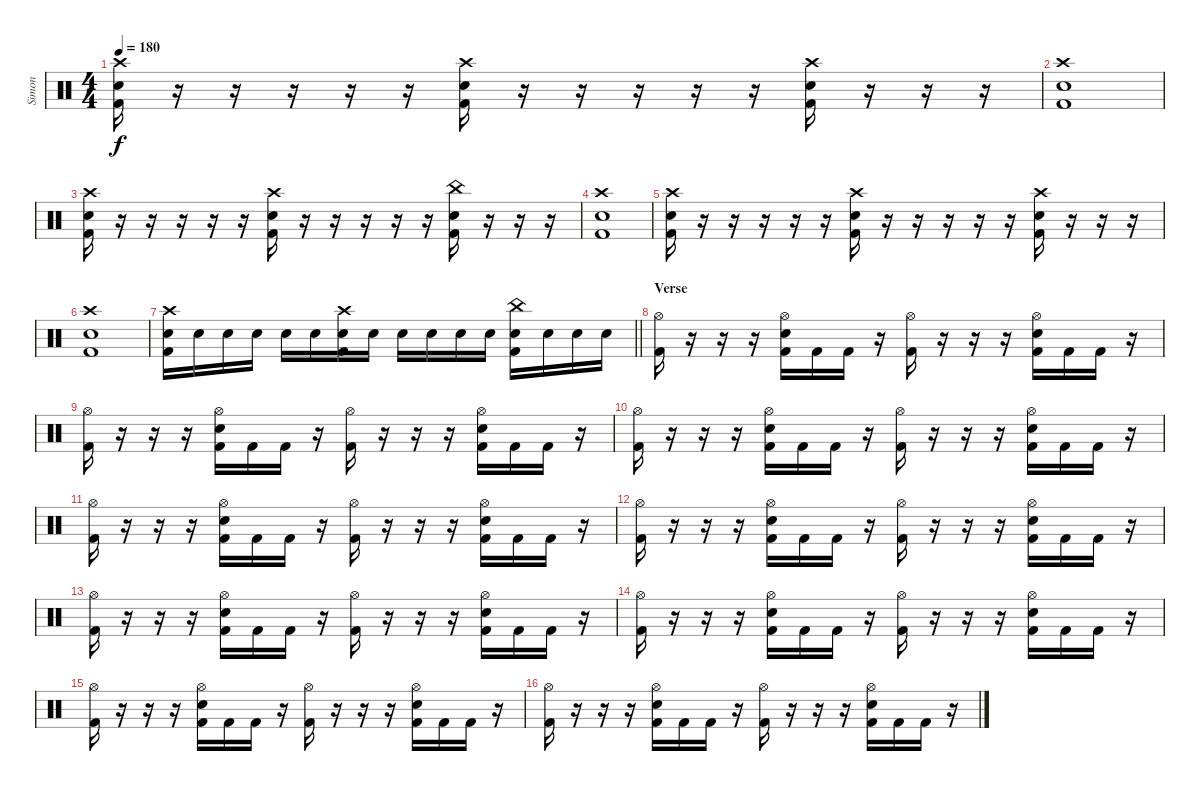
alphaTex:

\track ("Simon" "Simon") {instrument percussion}
\staff {score}
\articulation defaults
\ts (4 4)
\tempo 180
\clef neutral
\ks c
("Crash high (hit)" "Kick (hit) 2" "Electric Snare (hit)").16{dy f} r.16 r.16 r.16 r.16 r.16 ("Crash high (hit)" "Kick (hit) 2" "Electric Snare (hit)").16 r.16 r.16 r.16 r.16 r.16 ("Crash high (hit)" "Kick (hit) 2" "Electric Snare (hit)").16 r.16 r.16 r.16 |
("Crash high (hit)" "Kick (hit) 2" "Electric Snare (hit)").1 |
("Crash high (hit)" "Kick (hit) 2" "Electric Snare (hit)").16 r.16 r.16 r.16 r.16 r.16 ("Crash high (hit)" "Kick (hit) 2" "Electric Snare (hit)").16 r.16 r.16 r.16 r.16 r.16 ("China (hit)" "Kick (hit) 2" "Electric Snare (hit)").16 r.16 r.16 r.16 |
("Crash high (hit)" "Kick (hit) 2" "Electric Snare (hit)").1 |
("Crash high (hit)" "Kick (hit) 2" "Electric Snare (hit)").16 r.16 r.16 r.16 r.16 r.16 ("Crash high (hit)" "Kick (hit) 2" "Electric Snare (hit)").16 r.16 r.16 r.16 r.16 r.16 ("Crash high (hit)" "Kick (hit) 2" "Electric Snare (hit)").16 r.16 r.16 r.16 |
("Crash high (hit)" "Kick (hit) 2" "Electric Snare (hit)").1 |
\barLineRight lightlight
("Crash high (hit)" "Kick (hit) 2" "Electric Snare (hit)").16 "Electric Snare (hit)".16 "Electric Snare (hit)".16 "Electric Snare (hit)".16 "Electric Snare (hit)".16 "Electric Snare (hit)".16 ("Crash high (hit)" "Kick (hit) 2" "Electric Snare (hit)").16 "Electric Snare (hit)".16 "Electric Snare (hit)".16 "Electric Snare (hit)".16 "Electric Snare (hit)".16 "Electric Snare (hit)".16 ("China (hit)" "Kick (hit) 2" "Electric Snare (hit)").16 "Electric Snare (hit)".16 "Electric Snare (hit)".16 "Electric Snare (hit)".16 |
\section ("" "Verse")
("Hi-Hat (open)" "Kick (hit) 2").16 r.16 r.16 r.16 ("Hi-Hat (open)" "Electric Snare (hit)" "Kick (hit) 2").16 "Kick (hit) 2".16 "Kick (hit) 2".16 r.16 ("Hi-Hat (open)" "Kick (hit) 2").16 r.16 r.16 r.16 ("Hi-Hat (open)" "Electric Snare (hit)" "Kick (hit) 2").16 "Kick (hit) 2".16 "Kick (hit) 2".16 r.16 |
("Hi-Hat (open)" "Kick (hit) 2").16 r.16 r.16 r.16 ("Hi-Hat (open)" "Electric Snare (hit)" "Kick (hit) 2").16 "Kick (hit) 2".16 "Kick (hit) 2".16 r.16 ("Hi-Hat (open)" "Kick (hit) 2").16 r.16 r.16 r.16 ("Hi-Hat (open)" "Electric Snare (hit)" "Kick (hit) 2").16 "Kick (hit) 2".16 "Kick (hit) 2".16 r.16 |
("Hi-Hat (open)" "Kick (hit) 2").16 r.16 r.16 r.16 ("Hi-Hat (open)" "Electric Snare (hit)" "Kick (hit) 2").16 "Kick (hit) 2".16 "Kick (hit) 2".16 r.16 ("Hi-Hat (open)" "Kick (hit) 2").16 r.16 r.16 r.16 ("Hi-Hat (open)" "Electric Snare (hit)" "Kick (hit) 2").16 "Kick (hit) 2".16 "Kick (hit) 2".16 r.16 |
("Hi-Hat (open)" "Kick (hit) 2").16 r.16 r.16 r.16 ("Hi-Hat (open)" "Electric Snare (hit)" "Kick (hit) 2").16 "Kick (hit) 2".16 "Kick (hit) 2".16 r.16 ("Hi-Hat (open)" "Kick (hit) 2").16 r.16 r.16 r.16 ("Hi-Hat (open)" "Electric Snare (hit)" "Kick (hit) 2").16 "Kick (hit) 2".16 "Kick (hit) 2".16 r.16 |
("Hi-Hat (open)" "Kick (hit) 2").16 r.16 r.16 r.16 ("Hi-Hat (open)" "Electric Snare (hit)" "Kick (hit) 2").16 "Kick (hit) 2".16 "Kick (hit) 2".16 r.16 ("Hi-Hat (open)" "Kick (hit) 2").16 r.16 r.16 r.16 ("Hi-Hat (open)" "Electric Snare (hit)" "Kick (hit) 2").16 "Kick (hit) 2".16 "Kick (hit) 2".16 r.16 |
("Hi-Hat (open)" "Kick (hit) 2").16 r.16 r.16 r.16 ("Hi-Hat (open)" "Electric Snare (hit)" "Kick (hit) 2").16 "Kick (hit) 2".16 "Kick (hit) 2".16 r.16 ("Hi-Hat (open)" "Kick (hit) 2").16 r.16 r.16 r.16 ("Hi-Hat (open)" "Electric Snare (hit)" "Kick (hit) 2").16 "Kick (hit) 2".16 "Kick (hit) 2".16 r.16 |
("Hi-Hat (open)" "Kick (hit) 2").16 r.16 r.16 r.16 ("Hi-Hat (open)" "Electric Snare (hit)" "Kick (hit) 2").16 "Kick (hit) 2".16 "Kick (hit) 2".16 r.16 ("Hi-Hat (open)" "Kick (hit) 2").16 r.16 r.16 r.16 ("Hi-Hat (open)" "Electric Snare (hit)" "Kick (hit) 2").16 "Kick (hit) 2".16 "Kick (hit) 2".16 r.16 |
("Hi-Hat (open)" "Kick (hit) 2").16 r.16 r.16 r.16 ("Hi-Hat (open)" "Electric Snare (hit)" "Kick (hit) 2").16 "Kick (hit) 2".16 "Kick (hit) 2".16 r.16 ("Hi-Hat (open)" "Kick (hit) 2").16 r.16 r.16 r.16 ("Hi-Hat (open)" "Electric Snare (hit)" "Kick (hit) 2").16 "Kick (hit) 2".16 "Kick (hit) 2".16 r.16 |
("Hi-Hat (open)" "Kick (hit) 2").16 r.16 r.16 r.16 ("Hi-Hat (open)" "Electric Snare (hit)" "Kick (hit) 2").16 "Kick (hit) 2".16 "Kick (hit) 2".16 r.16 ("Hi-Hat (open)" "Kick (hit) 2").16 r.16 r.16 r.16 ("Hi-Hat (open)" "Electric Snare (hit)" "Kick (hit) 2").16 "Kick (hit) 2".16 "Kick (hit) 2".16 r.16
